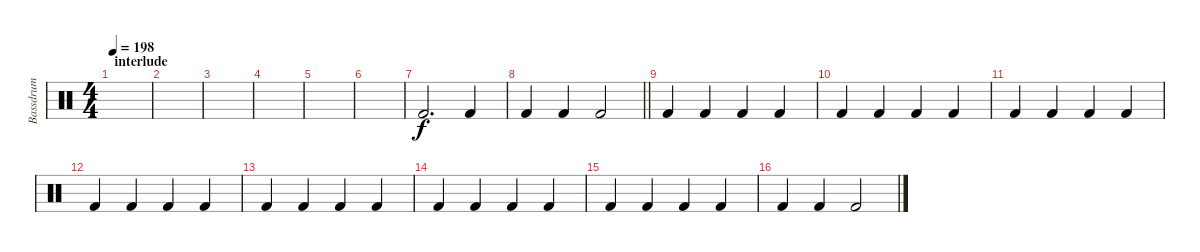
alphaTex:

\track ("Bassdrum" "Bassdrum") {instrument percussion}
\staff {score}
\articulation defaults
\ts (4 4)
\section ("" "interlude")
\tempo 198
\clef neutral
\ks c
|
|
|
|
|
|
"Kick (hit) 2".2{d} "Kick (hit) 2".4 |
\barLineRight lightlight "Kick (hit) 2".4 "Kick (hit) 2".4 "Kick (hit) 2".2
|
\section ("" "")
"Kick (hit) 2".4 "Kick (hit) 2".4 "Kick (hit) 2".4 "Kick (hit) 2".4 |
"Kick (hit) 2".4 "Kick (hit) 2".4 "Kick (hit) 2".4 "Kick (hit) 2".4 |
"Kick (hit) 2".4 "Kick (hit) 2".4 "Kick (hit) 2".4 "Kick (hit) 2".4 |
"Kick (hit) 2".4 "Kick (hit) 2".4 "Kick (hit) 2".4 "Kick (hit) 2".4 |
"Kick (hit) 2".4 "Kick (hit) 2".4 "Kick (hit) 2".4 "Kick (hit) 2".4 |
"Kick (hit) 2".4 "Kick (hit) 2".4 "Kick (hit) 2".4 "Kick (hit) 2".4 |
"Kick (hit) 2".4 "Kick (hit) 2".4 "Kick (hit) 2".4 "Kick (hit) 2".4 |
"Kick (hit) 2".4 "Kick (hit) 2".4 "Kick (hit) 2".2
